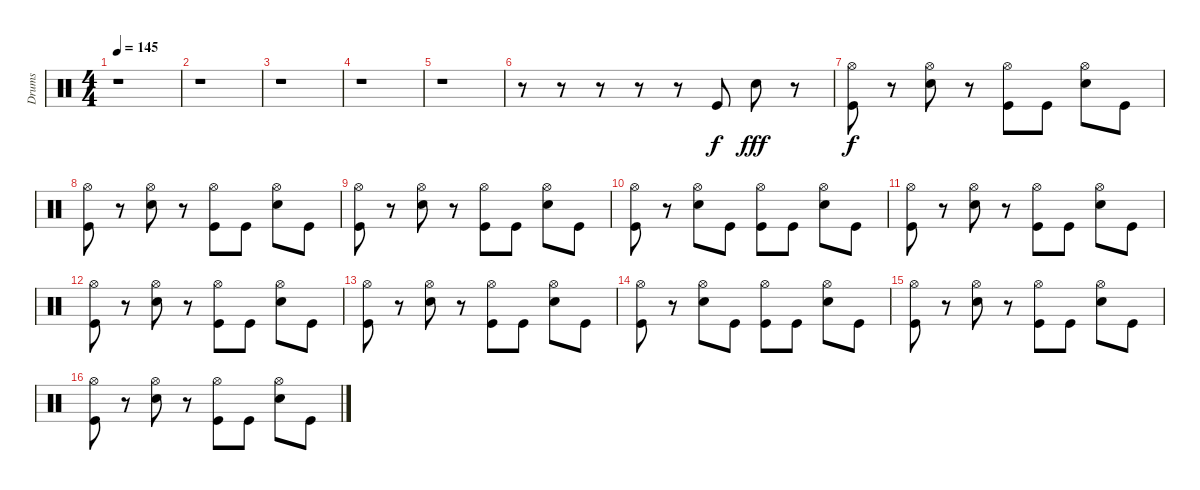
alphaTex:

\track ("Drums" "Drums") {instrument percussion}
\staff {score}
\articulation defaults
\ts (4 4)
\tempo 145
\clef neutral
\ks c
r.1{dy fff} |
r.1 |
r.1 |
r.1 |
r.1 |
r.8 r.8 r.8 r.8 r.8 "Kick (hit)".8{dy f} "Snare (hit) 2".8{dy fff} r.8 |
("Hi-Hat (open)" "Kick (hit)").8{dy f} r.8 ("Hi-Hat (open)" "Snare (hit) 2").8 r.8 ("Hi-Hat (open)" "Kick (hit)").8 "Kick (hit)".8 ("Hi-Hat (open)" "Snare (hit) 2").8 "Kick (hit)".8 |
("Hi-Hat (open)" "Kick (hit)").8 r.8 ("Hi-Hat (open)" "Snare (hit) 2").8 r.8 ("Hi-Hat (open)" "Kick (hit)").8 "Kick (hit)".8 ("Hi-Hat (open)" "Snare (hit) 2").8 "Kick (hit)".8 |
("Hi-Hat (open)" "Kick (hit)").8 r.8 ("Hi-Hat (open)" "Snare (hit) 2").8 r.8 ("Hi-Hat (open)" "Kick (hit)").8 "Kick (hit)".8 ("Hi-Hat (open)" "Snare (hit) 2").8 "Kick (hit)".8 |
("Hi-Hat (open)" "Kick (hit)").8 r.8 ("Hi-Hat (open)" "Snare (hit) 2").8 "Kick (hit)".8 ("Hi-Hat (open)" "Kick (hit)").8 "Kick (hit)".8 ("Hi-Hat (open)" "Snare (hit) 2").8 "Kick (hit)".8 |
("Hi-Hat (open)" "Kick (hit)").8 r.8 ("Hi-Hat (open)" "Snare (hit) 2").8 r.8 ("Hi-Hat (open)" "Kick (hit)").8 "Kick (hit)".8 ("Hi-Hat (open)" "Snare (hit) 2").8 "Kick (hit)".8 |
("Hi-Hat (open)" "Kick (hit)").8 r.8 ("Hi-Hat (open)" "Snare (hit) 2").8 r.8 ("Hi-Hat (open)" "Kick (hit)").8 "Kick (hit)".8 ("Hi-Hat (open)" "Snare (hit) 2").8 "Kick (hit)".8 |
("Hi-Hat (open)" "Kick (hit)").8 r.8 ("Hi-Hat (open)" "Snare (hit) 2").8 r.8 ("Hi-Hat (open)" "Kick (hit)").8 "Kick (hit)".8 ("Hi-Hat (open)" "Snare (hit) 2").8 "Kick (hit)".8 |
("Hi-Hat (open)" "Kick (hit)").8 r.8 ("Hi-Hat (open)" "Snare (hit) 2").8 "Kick (hit)".8 ("Hi-Hat (open)" "Kick (hit)").8 "Kick (hit)".8 ("Hi-Hat (open)" "Snare (hit) 2").8 "Kick (hit)".8 |
("Hi-Hat (open)" "Kick (hit)").8 r.8 ("Hi-Hat (open)" "Snare (hit) 2").8 r.8 ("Hi-Hat (open)" "Kick (hit)").8 "Kick (hit)".8 ("Hi-Hat (open)" "Snare (hit) 2").8 "Kick (hit)".8 |
("Hi-Hat (open)" "Kick (hit)").8 r.8 ("Hi-Hat (open)" "Snare (hit) 2").8 r.8 ("Hi-Hat (open)" "Kick (hit)").8 "Kick (hit)".8 ("Hi-Hat (open)" "Snare (hit) 2").8 "Kick (hit)".8
